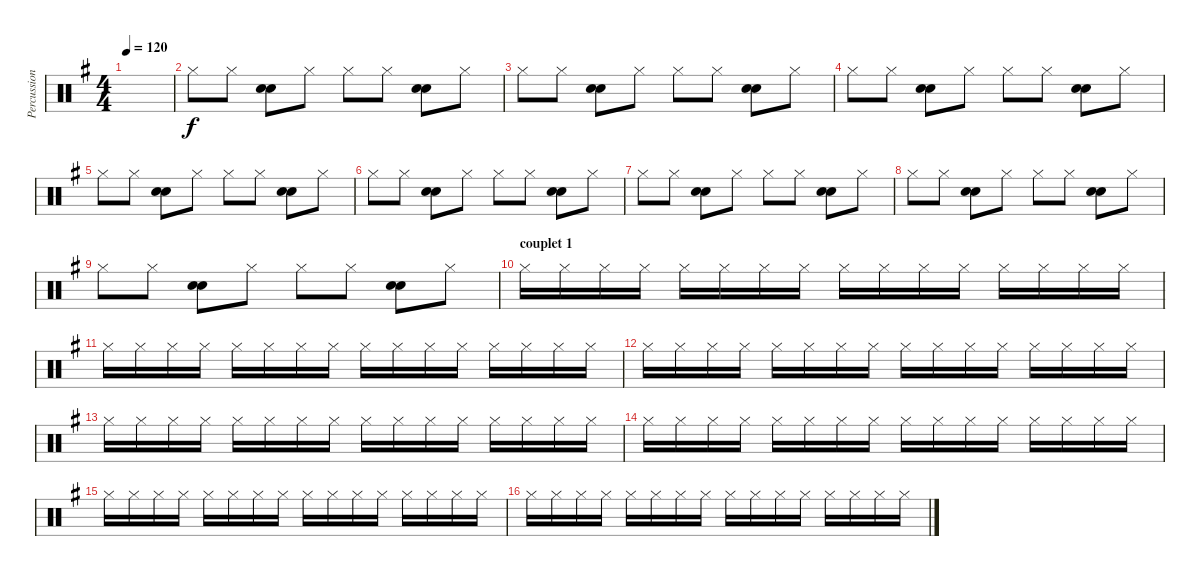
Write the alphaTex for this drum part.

\track ("Percussions" "Percussion") {instrument percussion}
\staff {score}
\articulation defaults
\ts (4 4)
\tempo 120
\clef neutral
\ks g
|
"Hi-Hat (closed)".8 "Hi-Hat (closed)".8 ("Snare (hit) 2" "Electric Snare (hit)").8 "Hi-Hat (closed)".8 "Hi-Hat (closed)".8 "Hi-Hat (closed)".8 ("Snare (hit) 2" "Electric Snare (hit)").8 "Hi-Hat (closed)".8 |
"Hi-Hat (closed)".8 "Hi-Hat (closed)".8 ("Snare (hit) 2" "Electric Snare (hit)").8 "Hi-Hat (closed)".8 "Hi-Hat (closed)".8 "Hi-Hat (closed)".8 ("Snare (hit) 2" "Electric Snare (hit)").8 "Hi-Hat (closed)".8 |
"Hi-Hat (closed)".8 "Hi-Hat (closed)".8 ("Snare (hit) 2" "Electric Snare (hit)").8 "Hi-Hat (closed)".8 "Hi-Hat (closed)".8 "Hi-Hat (closed)".8 ("Snare (hit) 2" "Electric Snare (hit)").8 "Hi-Hat (closed)".8 |
"Hi-Hat (closed)".8 "Hi-Hat (closed)".8 ("Snare (hit) 2" "Electric Snare (hit)").8 "Hi-Hat (closed)".8 "Hi-Hat (closed)".8 "Hi-Hat (closed)".8 ("Snare (hit) 2" "Electric Snare (hit)").8 "Hi-Hat (closed)".8 |
"Hi-Hat (closed)".8 "Hi-Hat (closed)".8 ("Snare (hit) 2" "Electric Snare (hit)").8 "Hi-Hat (closed)".8 "Hi-Hat (closed)".8 "Hi-Hat (closed)".8 ("Snare (hit) 2" "Electric Snare (hit)").8 "Hi-Hat (closed)".8 |
"Hi-Hat (closed)".8 "Hi-Hat (closed)".8 ("Snare (hit) 2" "Electric Snare (hit)").8 "Hi-Hat (closed)".8 "Hi-Hat (closed)".8 "Hi-Hat (closed)".8 ("Snare (hit) 2" "Electric Snare (hit)").8 "Hi-Hat (closed)".8 |
"Hi-Hat (closed)".8 "Hi-Hat (closed)".8 ("Snare (hit) 2" "Electric Snare (hit)").8 "Hi-Hat (closed)".8 "Hi-Hat (closed)".8 "Hi-Hat (closed)".8 ("Snare (hit) 2" "Electric Snare (hit)").8 "Hi-Hat (closed)".8 |
"Hi-Hat (closed)".8 "Hi-Hat (closed)".8 ("Snare (hit) 2" "Electric Snare (hit)").8 "Hi-Hat (closed)".8 "Hi-Hat (closed)".8 "Hi-Hat (closed)".8 ("Snare (hit) 2" "Electric Snare (hit)").8 "Hi-Hat (closed)".8 |
\section ("" "couplet 1")
"Hi-Hat (closed)".16{volume 7} "Hi-Hat (closed)".16 "Hi-Hat (closed)".16 "Hi-Hat (closed)".16 "Hi-Hat (closed)".16 "Hi-Hat (closed)".16 "Hi-Hat (closed)".16 "Hi-Hat (closed)".16 "Hi-Hat (closed)".16 "Hi-Hat (closed)".16 "Hi-Hat (closed)".16 "Hi-Hat (closed)".16 "Hi-Hat (closed)".16 "Hi-Hat (closed)".16 "Hi-Hat (closed)".16 "Hi-Hat (closed)".16 |
"Hi-Hat (closed)".16 "Hi-Hat (closed)".16 "Hi-Hat (closed)".16 "Hi-Hat (closed)".16 "Hi-Hat (closed)".16 "Hi-Hat (closed)".16 "Hi-Hat (closed)".16 "Hi-Hat (closed)".16 "Hi-Hat (closed)".16 "Hi-Hat (closed)".16 "Hi-Hat (closed)".16 "Hi-Hat (closed)".16 "Hi-Hat (closed)".16 "Hi-Hat (closed)".16 "Hi-Hat (closed)".16 "Hi-Hat (closed)".16 |
"Hi-Hat (closed)".16 "Hi-Hat (closed)".16 "Hi-Hat (closed)".16 "Hi-Hat (closed)".16 "Hi-Hat (closed)".16 "Hi-Hat (closed)".16 "Hi-Hat (closed)".16 "Hi-Hat (closed)".16 "Hi-Hat (closed)".16 "Hi-Hat (closed)".16 "Hi-Hat (closed)".16 "Hi-Hat (closed)".16 "Hi-Hat (closed)".16 "Hi-Hat (closed)".16 "Hi-Hat (closed)".16 "Hi-Hat (closed)".16 |
"Hi-Hat (closed)".16 "Hi-Hat (closed)".16 "Hi-Hat (closed)".16 "Hi-Hat (closed)".16 "Hi-Hat (closed)".16 "Hi-Hat (closed)".16 "Hi-Hat (closed)".16 "Hi-Hat (closed)".16 "Hi-Hat (closed)".16 "Hi-Hat (closed)".16 "Hi-Hat (closed)".16 "Hi-Hat (closed)".16 "Hi-Hat (closed)".16 "Hi-Hat (closed)".16 "Hi-Hat (closed)".16 "Hi-Hat (closed)".16 |
"Hi-Hat (closed)".16 "Hi-Hat (closed)".16 "Hi-Hat (closed)".16 "Hi-Hat (closed)".16 "Hi-Hat (closed)".16 "Hi-Hat (closed)".16 "Hi-Hat (closed)".16 "Hi-Hat (closed)".16 "Hi-Hat (closed)".16 "Hi-Hat (closed)".16 "Hi-Hat (closed)".16 "Hi-Hat (closed)".16 "Hi-Hat (closed)".16 "Hi-Hat (closed)".16 "Hi-Hat (closed)".16 "Hi-Hat (closed)".16 |
"Hi-Hat (closed)".16 "Hi-Hat (closed)".16 "Hi-Hat (closed)".16 "Hi-Hat (closed)".16 "Hi-Hat (closed)".16 "Hi-Hat (closed)".16 "Hi-Hat (closed)".16 "Hi-Hat (closed)".16 "Hi-Hat (closed)".16 "Hi-Hat (closed)".16 "Hi-Hat (closed)".16 "Hi-Hat (closed)".16 "Hi-Hat (closed)".16 "Hi-Hat (closed)".16 "Hi-Hat (closed)".16 "Hi-Hat (closed)".16 |
"Hi-Hat (closed)".16 "Hi-Hat (closed)".16 "Hi-Hat (closed)".16 "Hi-Hat (closed)".16 "Hi-Hat (closed)".16 "Hi-Hat (closed)".16 "Hi-Hat (closed)".16 "Hi-Hat (closed)".16 "Hi-Hat (closed)".16 "Hi-Hat (closed)".16 "Hi-Hat (closed)".16 "Hi-Hat (closed)".16 "Hi-Hat (closed)".16 "Hi-Hat (closed)".16 "Hi-Hat (closed)".16 "Hi-Hat (closed)".16
